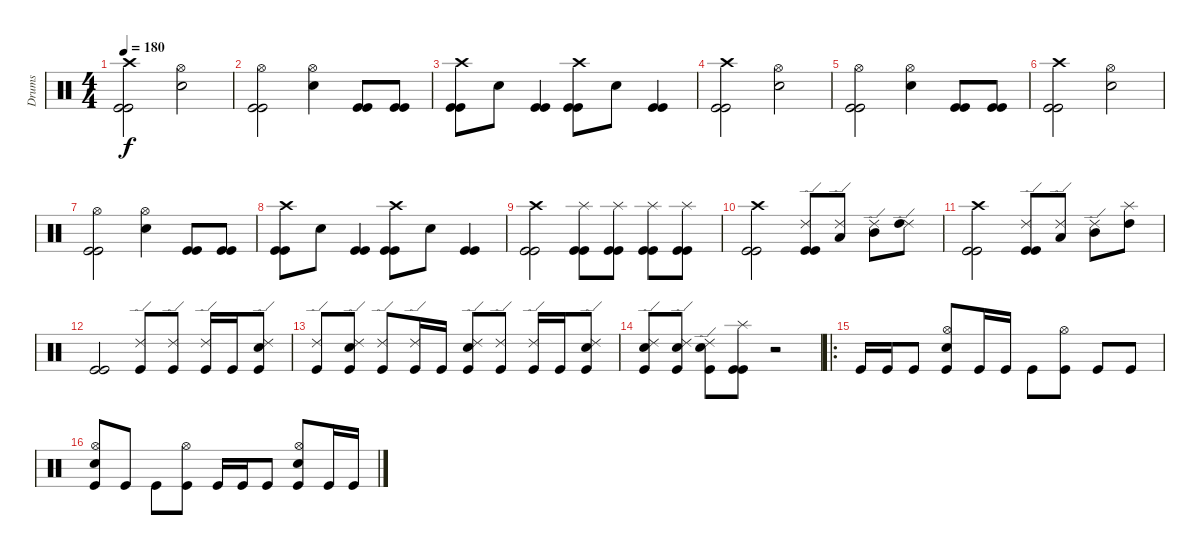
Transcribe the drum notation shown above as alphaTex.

\track ("Drums" "Drums") {instrument percussion}
\staff {score}
\articulation defaults
\ts (4 4)
\tempo 180
\clef neutral
\ks c
("Crash high (hit)" "Kick (hit)" "Kick (hit)").2{dy f} ("Hi-Hat (open)" "Snare (hit) 2").2 |
("Hi-Hat (open)" "Kick (hit)" "Kick (hit)").2 ("Hi-Hat (open)" "Snare (hit) 2").4 ("Kick (hit)" "Kick (hit)").8 ("Kick (hit)" "Kick (hit)").8 |
("Crash high (hit)" "Kick (hit)" "Kick (hit)").8 "Snare (hit) 2".8 ("Kick (hit)" "Kick (hit)").4 ("Crash high (hit)" "Kick (hit)" "Kick (hit)").8 "Snare (hit) 2".8 ("Kick (hit)" "Kick (hit)").4 |
("Crash high (hit)" "Kick (hit)" "Kick (hit)").2 ("Hi-Hat (open)" "Snare (hit) 2").2 |
("Hi-Hat (open)" "Kick (hit)" "Kick (hit)").2 ("Hi-Hat (open)" "Snare (hit) 2").4 ("Kick (hit)" "Kick (hit)").8 ("Kick (hit)" "Kick (hit)").8 |
("Crash high (hit)" "Kick (hit)" "Kick (hit)").2 ("Hi-Hat (open)" "Snare (hit) 2").2 |
("Hi-Hat (open)" "Kick (hit)" "Kick (hit)").2 ("Hi-Hat (open)" "Snare (hit) 2").4 ("Kick (hit)" "Kick (hit)").8 ("Kick (hit)" "Kick (hit)").8 |
("Crash high (hit)" "Kick (hit)" "Kick (hit)").8 "Snare (hit) 2".8 ("Kick (hit)" "Kick (hit)").4 ("Crash high (hit)" "Kick (hit)" "Kick (hit)").8 "Snare (hit) 2".8 ("Kick (hit)" "Kick (hit)").4 |
("Crash high (hit)" "Kick (hit)" "Kick (hit)").2 ("Splash (hit)" "Kick (hit)" "Kick (hit)").8 ("Splash (hit)" "Kick (hit)" "Kick (hit)").8 ("Splash (hit)" "Kick (hit)" "Kick (hit)").8 ("Splash (hit)" "Kick (hit)" "Kick (hit)").8 |
("Crash high (hit)" "Kick (hit)" "Kick (hit)").2 ("Ride (edge) 2" "Kick (hit)" "Kick (hit)").8 ("Ride (edge) 2" "Low Tom (hit)").8 ("Ride (edge) 2" "Mid Tom (hit)").8 ("Ride (edge) 2" "High Tom (hit)").8 |
("Crash high (hit)" "Kick (hit)" "Kick (hit)").2 ("Ride (edge) 2" "Kick (hit)" "Kick (hit)").8 ("Ride (edge) 2" "Low Tom (hit)").8 ("Ride (edge) 2" "Mid Tom (hit)").8 ("Splash (hit)" "High Tom (hit)").8 |
("Kick (hit)" "Kick (hit)").2 ("Ride (edge) 2" "Kick (hit)").8 ("Ride (edge) 2" "Kick (hit)").8 ("Ride (edge) 2" "Kick (hit)").16 "Kick (hit)".16 ("Ride (edge) 2" "Snare (hit) 2" "Kick (hit)").8 |
("Ride (edge) 2" "Kick (hit)").8 ("Ride (edge) 2" "Snare (hit) 2" "Kick (hit)").8 ("Ride (edge) 2" "Kick (hit)").8 ("Ride (edge) 2" "Kick (hit)").16 "Kick (hit)".16 ("Ride (edge) 2" "Snare (hit) 2" "Kick (hit)").8 ("Ride (edge) 2" "Kick (hit)").8 ("Ride (edge) 2" "Kick (hit)").16 "Kick (hit)".16 ("Ride (edge) 2" "Snare (hit) 2" "Kick (hit)").8 |
("Ride (edge) 2" "Snare (hit) 2" "Kick (hit)").8 ("Ride (edge) 2" "Snare (hit) 2" "Kick (hit)").8 ("Ride (edge) 2" "Snare (hit) 2" "Kick (hit)").8 ("Splash (hit)" "Kick (hit)" "Kick (hit)").8 r.2 |
\ro "Kick (hit)".16 "Kick (hit)".16 "Kick (hit)".8
("Hi-Hat (open)" "Snare (hit) 2" "Kick (hit)").8 "Kick (hit)".16 "Kick (hit)".16 "Kick (hit)".8 ("Hi-Hat (open)" "Kick (hit)").8 "Kick (hit)".8 "Kick (hit)".8 |
("Hi-Hat (open)" "Snare (hit) 2" "Kick (hit)").8 "Kick (hit)".8 "Kick (hit)".8 ("Hi-Hat (open)" "Kick (hit)").8 "Kick (hit)".16 "Kick (hit)".16 "Kick (hit)".8 ("Hi-Hat (open)" "Snare (hit) 2" "Kick (hit)").8 "Kick (hit)".16 "Kick (hit)".16
